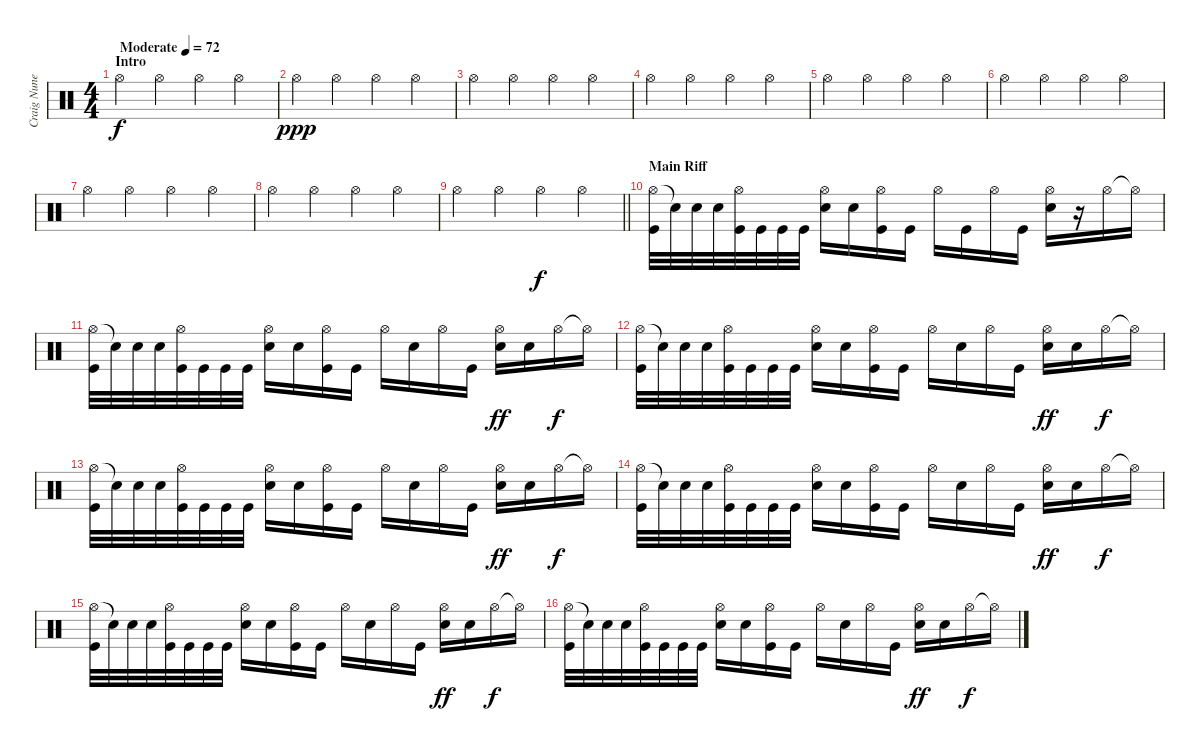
\track ("Craig Nunenmacher" "Craig Nune") {instrument percussion}
\staff {score}
\articulation defaults
\ts (4 4)
\section ("" "Intro")
\tempo (72 "Moderate")
\clef neutral
\ks c "Hi-Hat (open)".4{dy f} "Hi-Hat (open)".4 "Hi-Hat (open)".4 "Hi-Hat (open)".4
|
"Hi-Hat (open)".4{dy ppp} "Hi-Hat (open)".4 "Hi-Hat (open)".4 "Hi-Hat (open)".4 |
"Hi-Hat (open)".4 "Hi-Hat (open)".4 "Hi-Hat (open)".4 "Hi-Hat (open)".4 |
"Hi-Hat (open)".4 "Hi-Hat (open)".4 "Hi-Hat (open)".4 "Hi-Hat (open)".4 |
"Hi-Hat (open)".4 "Hi-Hat (open)".4 "Hi-Hat (open)".4 "Hi-Hat (open)".4 |
"Hi-Hat (open)".4 "Hi-Hat (open)".4 "Hi-Hat (open)".4 "Hi-Hat (open)".4 |
"Hi-Hat (open)".4 "Hi-Hat (open)".4 "Hi-Hat (open)".4 "Hi-Hat (open)".4 |
"Hi-Hat (open)".4 "Hi-Hat (open)".4 "Hi-Hat (open)".4 "Hi-Hat (open)".4 |
\barLineRight lightlight "Hi-Hat (open)".4 "Hi-Hat (open)".4 "Hi-Hat (open)".4{dy f} "Hi-Hat (open)".4
|
\section ("" "Main Riff")
("Hi-Hat (open)" "Kick (hit)").32 "Snare (hit)"{t}.32 "Snare (hit) 2".32 "Snare (hit) 2".32 ("Hi-Hat (open)" "Kick (hit)").32 "Kick (hit)".32 "Kick (hit)".32 "Kick (hit)".32 ("Snare (hit) 2" "Hi-Hat (open)").16 "Snare (hit) 2".16 ("Hi-Hat (open)" "Kick (hit)").16 "Kick (hit)".16 "Hi-Hat (open)".16 "Kick (hit)".16 "Hi-Hat (open)".16 "Kick (hit)".16 ("Snare (hit) 2" "Hi-Hat (open)").16 r.16 "Hi-Hat (open)".16 "Hi-Hat (open)"{t}.16 |
("Hi-Hat (open)" "Kick (hit)").32 "Snare (hit)"{t}.32 "Snare (hit) 2".32 "Snare (hit) 2".32 ("Hi-Hat (open)" "Kick (hit)").32 "Kick (hit)".32 "Kick (hit)".32 "Kick (hit)".32 ("Snare (hit) 2" "Hi-Hat (open)").16 "Snare (hit) 2".16 ("Hi-Hat (open)" "Kick (hit)").16 "Kick (hit)".16 "Hi-Hat (open)".16 "Snare (hit) 2".16 "Hi-Hat (open)".16 "Kick (hit)".16 ("Snare (hit) 2" "Hi-Hat (open)").16{dy ff} "Snare (hit) 2".16 "Hi-Hat (open)".16{dy f} "Hi-Hat (open)"{t}.16 |
("Hi-Hat (open)" "Kick (hit)").32 "Snare (hit)"{t}.32 "Snare (hit) 2".32 "Snare (hit) 2".32 ("Hi-Hat (open)" "Kick (hit)").32 "Kick (hit)".32 "Kick (hit)".32 "Kick (hit)".32 ("Snare (hit) 2" "Hi-Hat (open)").16 "Snare (hit) 2".16 ("Hi-Hat (open)" "Kick (hit)").16 "Kick (hit)".16 "Hi-Hat (open)".16 "Snare (hit) 2".16 "Hi-Hat (open)".16 "Kick (hit)".16 ("Snare (hit) 2" "Hi-Hat (open)").16{dy ff} "Snare (hit) 2".16 "Hi-Hat (open)".16{dy f} "Hi-Hat (open)"{t}.16 |
("Hi-Hat (open)" "Kick (hit)").32 "Snare (hit)"{t}.32 "Snare (hit) 2".32 "Snare (hit) 2".32 ("Hi-Hat (open)" "Kick (hit)").32 "Kick (hit)".32 "Kick (hit)".32 "Kick (hit)".32 ("Snare (hit) 2" "Hi-Hat (open)").16 "Snare (hit) 2".16 ("Hi-Hat (open)" "Kick (hit)").16 "Kick (hit)".16 "Hi-Hat (open)".16 "Snare (hit) 2".16 "Hi-Hat (open)".16 "Kick (hit)".16 ("Snare (hit) 2" "Hi-Hat (open)").16{dy ff} "Snare (hit) 2".16 "Hi-Hat (open)".16{dy f} "Hi-Hat (open)"{t}.16 |
("Hi-Hat (open)" "Kick (hit)").32 "Snare (hit)"{t}.32 "Snare (hit) 2".32 "Snare (hit) 2".32 ("Hi-Hat (open)" "Kick (hit)").32 "Kick (hit)".32 "Kick (hit)".32 "Kick (hit)".32 ("Snare (hit) 2" "Hi-Hat (open)").16 "Snare (hit) 2".16 ("Hi-Hat (open)" "Kick (hit)").16 "Kick (hit)".16 "Hi-Hat (open)".16 "Snare (hit) 2".16 "Hi-Hat (open)".16 "Kick (hit)".16 ("Snare (hit) 2" "Hi-Hat (open)").16{dy ff} "Snare (hit) 2".16 "Hi-Hat (open)".16{dy f} "Hi-Hat (open)"{t}.16 |
("Hi-Hat (open)" "Kick (hit)").32 "Snare (hit)"{t}.32 "Snare (hit) 2".32 "Snare (hit) 2".32 ("Hi-Hat (open)" "Kick (hit)").32 "Kick (hit)".32 "Kick (hit)".32 "Kick (hit)".32 ("Snare (hit) 2" "Hi-Hat (open)").16 "Snare (hit) 2".16 ("Hi-Hat (open)" "Kick (hit)").16 "Kick (hit)".16 "Hi-Hat (open)".16 "Snare (hit) 2".16 "Hi-Hat (open)".16 "Kick (hit)".16 ("Snare (hit) 2" "Hi-Hat (open)").16{dy ff} "Snare (hit) 2".16 "Hi-Hat (open)".16{dy f} "Hi-Hat (open)"{t}.16 |
("Hi-Hat (open)" "Kick (hit)").32 "Snare (hit)"{t}.32 "Snare (hit) 2".32 "Snare (hit) 2".32 ("Hi-Hat (open)" "Kick (hit)").32 "Kick (hit)".32 "Kick (hit)".32 "Kick (hit)".32 ("Snare (hit) 2" "Hi-Hat (open)").16 "Snare (hit) 2".16 ("Hi-Hat (open)" "Kick (hit)").16 "Kick (hit)".16 "Hi-Hat (open)".16 "Snare (hit) 2".16 "Hi-Hat (open)".16 "Kick (hit)".16 ("Snare (hit) 2" "Hi-Hat (open)").16{dy ff} "Snare (hit) 2".16 "Hi-Hat (open)".16{dy f} "Hi-Hat (open)"{t}.16
